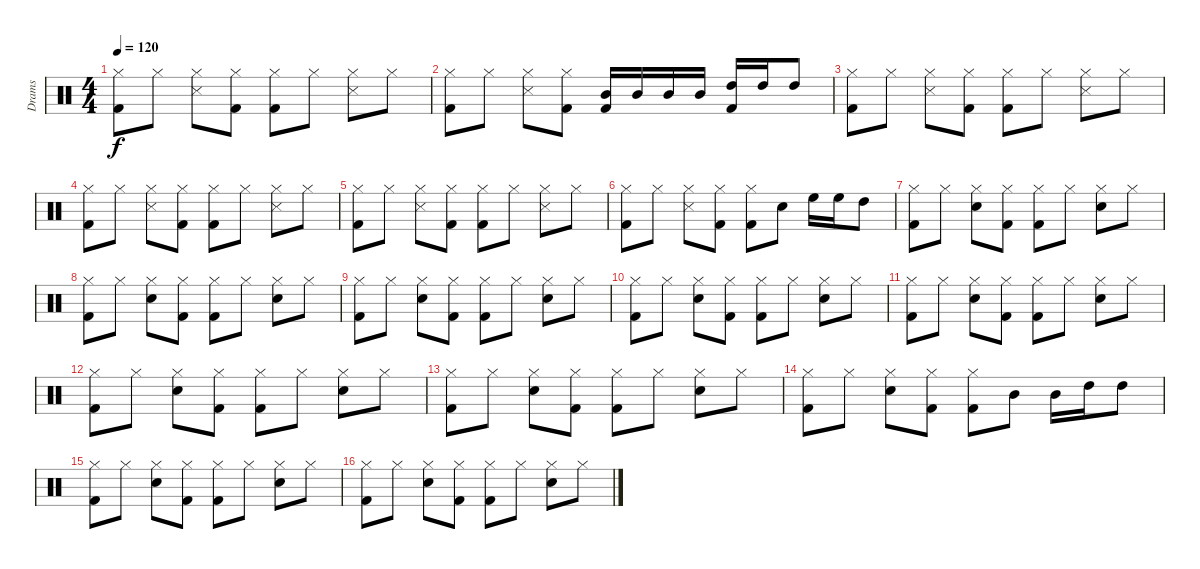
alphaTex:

\track ("Drams" "Drams") {instrument percussion}
\staff {score}
\articulation defaults
\ts (4 4)
\tempo 120
\clef neutral
\ks aminor
("Hi-Hat (closed)" "Kick (hit) 2").8{dy f} "Hi-Hat (closed)".8 ("Hi-Hat (closed)" "Snare (side stick) 3").8 ("Hi-Hat (closed)" "Kick (hit) 2").8 ("Hi-Hat (closed)" "Kick (hit) 2").8 "Hi-Hat (closed)".8 ("Hi-Hat (closed)" "Snare (side stick) 3").8 "Hi-Hat (closed)".8 |
("Hi-Hat (closed)" "Kick (hit) 2").8 "Hi-Hat (closed)".8 ("Hi-Hat (closed)" "Snare (side stick) 3").8 ("Hi-Hat (closed)" "Kick (hit) 2").8 ("Mid Tom (hit)" "Kick (hit) 2").16 "Mid Tom (hit)".16 "Mid Tom (hit)".16 "Mid Tom (hit)".16 ("High Tom (hit)" "Kick (hit) 2").16 "High Tom (hit)".16 "High Tom (hit)".8 |
("Hi-Hat (closed)" "Kick (hit) 2").8 "Hi-Hat (closed)".8 ("Hi-Hat (closed)" "Snare (side stick) 3").8 ("Hi-Hat (closed)" "Kick (hit) 2").8 ("Hi-Hat (closed)" "Kick (hit) 2").8 "Hi-Hat (closed)".8 ("Hi-Hat (closed)" "Snare (side stick) 3").8 "Hi-Hat (closed)".8 |
("Hi-Hat (closed)" "Kick (hit) 2").8 "Hi-Hat (closed)".8 ("Hi-Hat (closed)" "Snare (side stick) 3").8 ("Hi-Hat (closed)" "Kick (hit) 2").8 ("Hi-Hat (closed)" "Kick (hit) 2").8 "Hi-Hat (closed)".8 ("Hi-Hat (closed)" "Snare (side stick) 3").8 "Hi-Hat (closed)".8 |
("Hi-Hat (closed)" "Kick (hit) 2").8 "Hi-Hat (closed)".8 ("Hi-Hat (closed)" "Snare (side stick) 3").8 ("Hi-Hat (closed)" "Kick (hit) 2").8 ("Hi-Hat (closed)" "Kick (hit) 2").8 "Hi-Hat (closed)".8 ("Hi-Hat (closed)" "Snare (side stick) 3").8 "Hi-Hat (closed)".8 |
("Hi-Hat (closed)" "Kick (hit) 2").8 "Hi-Hat (closed)".8 ("Hi-Hat (closed)" "Snare (side stick) 3").8 ("Hi-Hat (closed)" "Kick (hit) 2").8 ("Hi-Hat (closed)" "Kick (hit) 2").8 "Electric Snare (hit)".8 "High Floor Tom (hit)".16 "High Floor Tom (hit)".16 "High Tom (hit)".8 |
("Hi-Hat (closed)" "Kick (hit) 2").8 "Hi-Hat (closed)".8 ("Hi-Hat (closed)" "Electric Snare (hit)").8 ("Hi-Hat (closed)" "Kick (hit) 2").8 ("Hi-Hat (closed)" "Kick (hit) 2").8 "Hi-Hat (closed)".8 ("Hi-Hat (closed)" "Electric Snare (hit)").8 "Hi-Hat (closed)".8 |
("Hi-Hat (closed)" "Kick (hit) 2").8 "Hi-Hat (closed)".8 ("Hi-Hat (closed)" "Electric Snare (hit)").8 ("Hi-Hat (closed)" "Kick (hit) 2").8 ("Hi-Hat (closed)" "Kick (hit) 2").8 "Hi-Hat (closed)".8 ("Hi-Hat (closed)" "Electric Snare (hit)").8 "Hi-Hat (closed)".8 |
("Hi-Hat (closed)" "Kick (hit) 2").8 "Hi-Hat (closed)".8 ("Hi-Hat (closed)" "Electric Snare (hit)").8 ("Hi-Hat (closed)" "Kick (hit) 2").8 ("Hi-Hat (closed)" "Kick (hit) 2").8 "Hi-Hat (closed)".8 ("Hi-Hat (closed)" "Electric Snare (hit)").8 "Hi-Hat (closed)".8 |
("Hi-Hat (closed)" "Kick (hit) 2").8 "Hi-Hat (closed)".8 ("Hi-Hat (closed)" "Electric Snare (hit)").8 ("Hi-Hat (closed)" "Kick (hit) 2").8 ("Hi-Hat (closed)" "Kick (hit) 2").8 "Hi-Hat (closed)".8 ("Hi-Hat (closed)" "Electric Snare (hit)").8 "Hi-Hat (closed)".8 |
("Hi-Hat (closed)" "Kick (hit) 2").8 "Hi-Hat (closed)".8 ("Hi-Hat (closed)" "Electric Snare (hit)").8 ("Hi-Hat (closed)" "Kick (hit) 2").8 ("Hi-Hat (closed)" "Kick (hit) 2").8 "Hi-Hat (closed)".8 ("Hi-Hat (closed)" "Electric Snare (hit)").8 "Hi-Hat (closed)".8 |
("Hi-Hat (closed)" "Kick (hit) 2").8 "Hi-Hat (closed)".8 ("Hi-Hat (closed)" "Electric Snare (hit)").8 ("Hi-Hat (closed)" "Kick (hit) 2").8 ("Hi-Hat (closed)" "Kick (hit) 2").8 "Hi-Hat (closed)".8 ("Hi-Hat (closed)" "Electric Snare (hit)").8 "Hi-Hat (closed)".8 |
("Hi-Hat (closed)" "Kick (hit) 2").8 "Hi-Hat (closed)".8 ("Hi-Hat (closed)" "Electric Snare (hit)").8 ("Hi-Hat (closed)" "Kick (hit) 2").8 ("Hi-Hat (closed)" "Kick (hit) 2").8 "Hi-Hat (closed)".8 ("Hi-Hat (closed)" "Electric Snare (hit)").8 "Hi-Hat (closed)".8 |
("Hi-Hat (closed)" "Kick (hit) 2").8 "Hi-Hat (closed)".8 ("Hi-Hat (closed)" "Electric Snare (hit)").8 ("Hi-Hat (closed)" "Kick (hit) 2").8 ("Hi-Hat (closed)" "Kick (hit) 2").8 "Mid Tom (hit)".8 "Mid Tom (hit)".16 "High Tom (hit)".16 "High Tom (hit)".8 |
("Hi-Hat (closed)" "Kick (hit) 2").8 "Hi-Hat (closed)".8 ("Hi-Hat (closed)" "Electric Snare (hit)").8 ("Hi-Hat (closed)" "Kick (hit) 2").8 ("Hi-Hat (closed)" "Kick (hit) 2").8 "Hi-Hat (closed)".8 ("Hi-Hat (closed)" "Electric Snare (hit)").8 "Hi-Hat (closed)".8 |
("Hi-Hat (closed)" "Kick (hit) 2").8 "Hi-Hat (closed)".8 ("Hi-Hat (closed)" "Electric Snare (hit)").8 ("Hi-Hat (closed)" "Kick (hit) 2").8 ("Hi-Hat (closed)" "Kick (hit) 2").8 "Hi-Hat (closed)".8 ("Hi-Hat (closed)" "Electric Snare (hit)").8 "Hi-Hat (closed)".8
